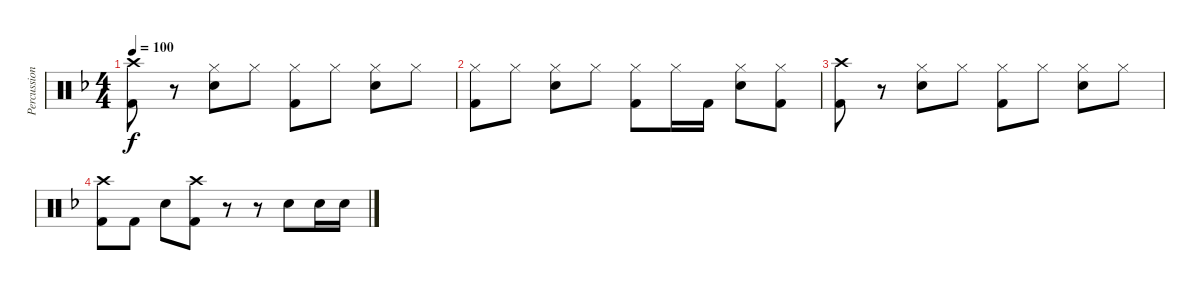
\track ("Percussion" "Percussion") {instrument percussion}
\staff {score}
\articulation defaults
\ts (4 4)
\tempo 100
\clef neutral
\ks dminor
("Crash high (hit)" "Kick (hit) 2").8{dy f} r.8 ("Hi-Hat (closed)" "Snare (hit) 2").8 "Hi-Hat (closed)".8 ("Hi-Hat (closed)" "Kick (hit) 2").8 "Hi-Hat (closed)".8 ("Hi-Hat (closed)" "Snare (hit) 2").8 "Hi-Hat (closed)".8 |
("Hi-Hat (closed)" "Kick (hit) 2").8 "Hi-Hat (closed)".8 ("Hi-Hat (closed)" "Snare (hit) 2").8 "Hi-Hat (closed)".8 ("Hi-Hat (closed)" "Kick (hit) 2").8 "Hi-Hat (closed)".16 "Kick (hit) 2".16 ("Hi-Hat (closed)" "Snare (hit) 2").8 ("Hi-Hat (closed)" "Kick (hit) 2").8 |
("Crash high (hit)" "Kick (hit) 2").8 r.8 ("Hi-Hat (closed)" "Snare (hit) 2").8 "Hi-Hat (closed)".8 ("Hi-Hat (closed)" "Kick (hit) 2").8 "Hi-Hat (closed)".8 ("Hi-Hat (closed)" "Snare (hit) 2").8 "Hi-Hat (closed)".8 |
("Crash high (hit)" "Kick (hit) 2").8 "Kick (hit) 2".8 "Snare (hit) 2".8 ("Crash high (hit)" "Kick (hit) 2").8 r.8 r.8 "Snare (hit) 2".8 "Snare (hit) 2".16 "Snare (hit) 2".16
